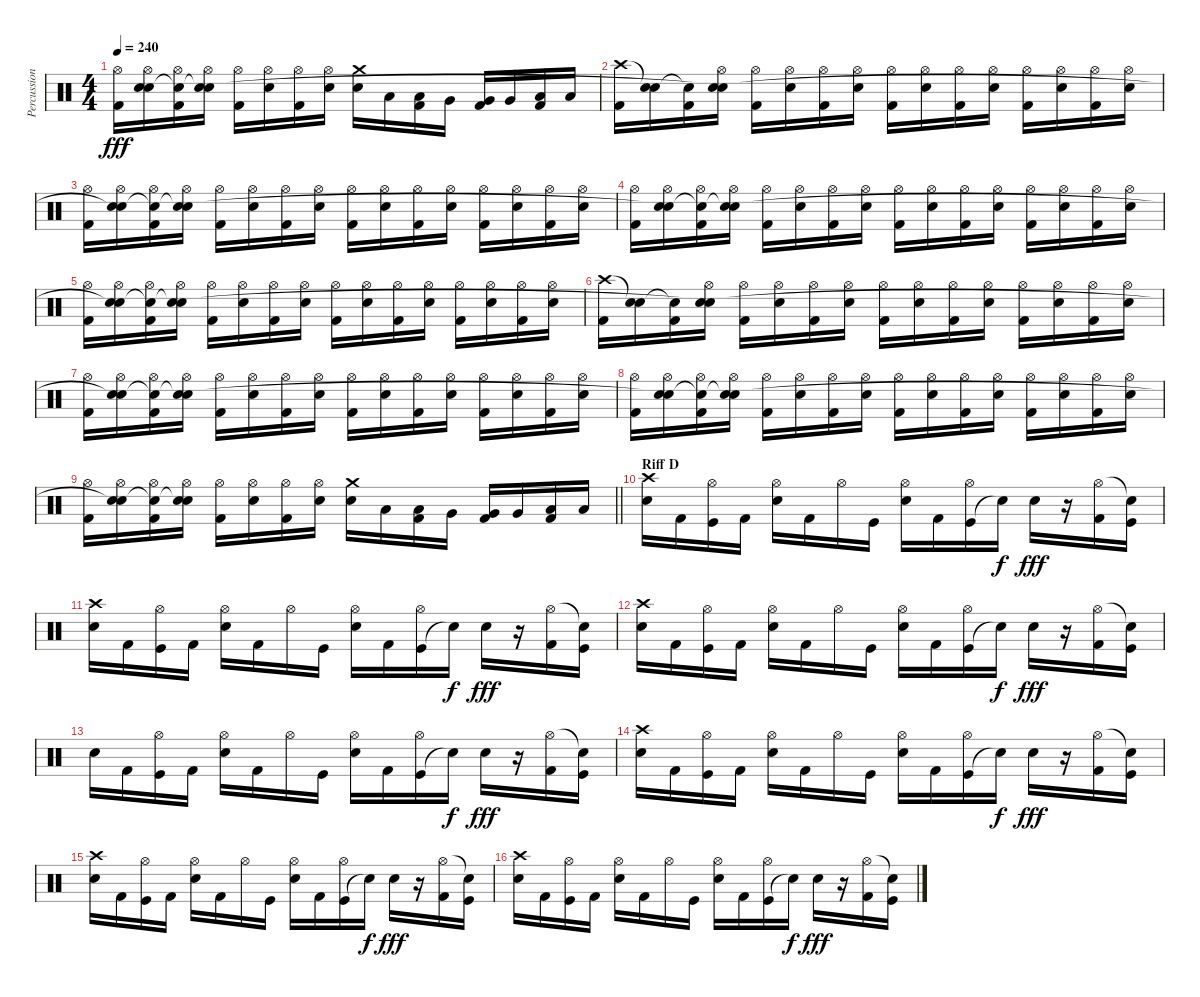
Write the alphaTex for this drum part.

\track ("Percussion" "Percussion") {instrument percussion}
\staff {score}
\articulation defaults
\ts (4 4)
\tempo 240
\clef neutral
\ks c
("Kick (hit) 2" "Hi-Hat (open)").16{dy fff} ("Snare (hit) 2" "Hi-Hat (open)" "Snare (hit)"{t}).16 ("Kick (hit) 2" "Hi-Hat (open)" "Snare (hit)"{t}).16 ("Snare (hit) 2" "Hi-Hat (open)" "Snare (hit)"{t}).16 ("Kick (hit) 2" "Hi-Hat (open)").16 ("Snare (hit) 2" "Hi-Hat (open)").16 ("Kick (hit) 2" "Hi-Hat (open)").16 ("Snare (hit) 2" "Hi-Hat (open)").16 ("Snare (hit) 2" "Crash medium (hit)").16 "Low Tom (hit)".16 ("Kick (hit) 2" "Low Tom (hit)").16 "Very Low Tom (hit)".16 ("Kick (hit) 2" "Very Low Tom (hit)").16 "Very Low Tom (hit)".16 ("Kick (hit) 2" "Low Floor Tom (hit)").16 "Low Floor Tom (hit)".16 |
("Kick (hit) 2" "Crash high (hit)").16 ("Snare (hit) 2" "Snare (hit)"{t}).16 ("Kick (hit) 2" "Snare (hit)"{t}).16 ("Snare (hit) 2" "Hi-Hat (open)" "Snare (hit)"{t}).16 ("Kick (hit) 2" "Hi-Hat (open)").16 ("Snare (hit) 2" "Hi-Hat (open)").16 ("Kick (hit) 2" "Hi-Hat (open)").16 ("Snare (hit) 2" "Hi-Hat (open)").16 ("Kick (hit) 2" "Hi-Hat (open)").16 ("Snare (hit) 2" "Hi-Hat (open)").16 ("Kick (hit) 2" "Hi-Hat (open)").16 ("Snare (hit) 2" "Hi-Hat (open)").16 ("Kick (hit) 2" "Hi-Hat (open)").16 ("Snare (hit) 2" "Hi-Hat (open)").16 ("Kick (hit) 2" "Hi-Hat (open)").16 ("Snare (hit) 2" "Hi-Hat (open)").16 |
("Kick (hit) 2" "Hi-Hat (open)").16 ("Snare (hit) 2" "Hi-Hat (open)" "Snare (hit)"{t}).16 ("Kick (hit) 2" "Hi-Hat (open)" "Snare (hit)"{t}).16 ("Snare (hit) 2" "Hi-Hat (open)" "Snare (hit)"{t}).16 ("Kick (hit) 2" "Hi-Hat (open)").16 ("Snare (hit) 2" "Hi-Hat (open)").16 ("Kick (hit) 2" "Hi-Hat (open)").16 ("Snare (hit) 2" "Hi-Hat (open)").16 ("Kick (hit) 2" "Hi-Hat (open)").16 ("Snare (hit) 2" "Hi-Hat (open)").16 ("Kick (hit) 2" "Hi-Hat (open)").16 ("Snare (hit) 2" "Hi-Hat (open)").16 ("Kick (hit) 2" "Hi-Hat (open)").16 ("Snare (hit) 2" "Hi-Hat (open)").16 ("Kick (hit) 2" "Hi-Hat (open)").16 ("Snare (hit) 2" "Hi-Hat (open)").16 |
("Kick (hit) 2" "Hi-Hat (open)").16 ("Snare (hit) 2" "Hi-Hat (open)" "Snare (hit)"{t}).16 ("Kick (hit) 2" "Hi-Hat (open)" "Snare (hit)"{t}).16 ("Snare (hit) 2" "Hi-Hat (open)" "Snare (hit)"{t}).16 ("Kick (hit) 2" "Hi-Hat (open)").16 ("Snare (hit) 2" "Hi-Hat (open)").16 ("Kick (hit) 2" "Hi-Hat (open)").16 ("Snare (hit) 2" "Hi-Hat (open)").16 ("Kick (hit) 2" "Hi-Hat (open)").16 ("Snare (hit) 2" "Hi-Hat (open)").16 ("Kick (hit) 2" "Hi-Hat (open)").16 ("Snare (hit) 2" "Hi-Hat (open)").16 ("Kick (hit) 2" "Hi-Hat (open)").16 ("Snare (hit) 2" "Hi-Hat (open)").16 ("Kick (hit) 2" "Hi-Hat (open)").16 ("Snare (hit) 2" "Hi-Hat (open)").16 |
("Kick (hit) 2" "Hi-Hat (open)").16 ("Snare (hit) 2" "Hi-Hat (open)" "Snare (hit)"{t}).16 ("Kick (hit) 2" "Hi-Hat (open)" "Snare (hit)"{t}).16 ("Snare (hit) 2" "Hi-Hat (open)" "Snare (hit)"{t}).16 ("Kick (hit) 2" "Hi-Hat (open)").16 ("Snare (hit) 2" "Hi-Hat (open)").16 ("Kick (hit) 2" "Hi-Hat (open)").16 ("Snare (hit) 2" "Hi-Hat (open)").16 ("Kick (hit) 2" "Hi-Hat (open)").16 ("Snare (hit) 2" "Hi-Hat (open)").16 ("Kick (hit) 2" "Hi-Hat (open)").16 ("Snare (hit) 2" "Hi-Hat (open)").16 ("Kick (hit) 2" "Hi-Hat (open)").16 ("Snare (hit) 2" "Hi-Hat (open)").16 ("Kick (hit) 2" "Hi-Hat (open)").16 ("Snare (hit) 2" "Hi-Hat (open)").16 |
("Kick (hit) 2" "Crash high (hit)").16 ("Snare (hit) 2" "Snare (hit)"{t}).16 ("Kick (hit) 2" "Snare (hit)"{t}).16 ("Snare (hit) 2" "Hi-Hat (open)" "Snare (hit)"{t}).16 ("Kick (hit) 2" "Hi-Hat (open)").16 ("Snare (hit) 2" "Hi-Hat (open)").16 ("Kick (hit) 2" "Hi-Hat (open)").16 ("Snare (hit) 2" "Hi-Hat (open)").16 ("Kick (hit) 2" "Hi-Hat (open)").16 ("Snare (hit) 2" "Hi-Hat (open)").16 ("Kick (hit) 2" "Hi-Hat (open)").16 ("Snare (hit) 2" "Hi-Hat (open)").16 ("Kick (hit) 2" "Hi-Hat (open)").16 ("Snare (hit) 2" "Hi-Hat (open)").16 ("Kick (hit) 2" "Hi-Hat (open)").16 ("Snare (hit) 2" "Hi-Hat (open)").16 |
("Kick (hit) 2" "Hi-Hat (open)").16 ("Snare (hit) 2" "Hi-Hat (open)" "Snare (hit)"{t}).16 ("Kick (hit) 2" "Hi-Hat (open)" "Snare (hit)"{t}).16 ("Snare (hit) 2" "Hi-Hat (open)" "Snare (hit)"{t}).16 ("Kick (hit) 2" "Hi-Hat (open)").16 ("Snare (hit) 2" "Hi-Hat (open)").16 ("Kick (hit) 2" "Hi-Hat (open)").16 ("Snare (hit) 2" "Hi-Hat (open)").16 ("Kick (hit) 2" "Hi-Hat (open)").16 ("Snare (hit) 2" "Hi-Hat (open)").16 ("Kick (hit) 2" "Hi-Hat (open)").16 ("Snare (hit) 2" "Hi-Hat (open)").16 ("Kick (hit) 2" "Hi-Hat (open)").16 ("Snare (hit) 2" "Hi-Hat (open)").16 ("Kick (hit) 2" "Hi-Hat (open)").16 ("Snare (hit) 2" "Hi-Hat (open)").16 |
("Kick (hit) 2" "Hi-Hat (open)").16 ("Snare (hit) 2" "Hi-Hat (open)" "Snare (hit)"{t}).16 ("Kick (hit) 2" "Hi-Hat (open)" "Snare (hit)"{t}).16 ("Snare (hit) 2" "Hi-Hat (open)" "Snare (hit)"{t}).16 ("Kick (hit) 2" "Hi-Hat (open)").16 ("Snare (hit) 2" "Hi-Hat (open)").16 ("Kick (hit) 2" "Hi-Hat (open)").16 ("Snare (hit) 2" "Hi-Hat (open)").16 ("Kick (hit) 2" "Hi-Hat (open)").16 ("Snare (hit) 2" "Hi-Hat (open)").16 ("Kick (hit) 2" "Hi-Hat (open)").16 ("Snare (hit) 2" "Hi-Hat (open)").16 ("Kick (hit) 2" "Hi-Hat (open)").16 ("Snare (hit) 2" "Hi-Hat (open)").16 ("Kick (hit) 2" "Hi-Hat (open)").16 ("Snare (hit) 2" "Hi-Hat (open)").16 |
\barLineRight lightlight
("Kick (hit) 2" "Hi-Hat (open)").16 ("Snare (hit) 2" "Hi-Hat (open)" "Snare (hit)"{t}).16 ("Kick (hit) 2" "Hi-Hat (open)" "Snare (hit)"{t}).16 ("Snare (hit) 2" "Hi-Hat (open)" "Snare (hit)"{t}).16 ("Kick (hit) 2" "Hi-Hat (open)").16 ("Snare (hit) 2" "Hi-Hat (open)").16 ("Kick (hit) 2" "Hi-Hat (open)").16 ("Snare (hit) 2" "Hi-Hat (open)").16 ("Snare (hit) 2" "Crash medium (hit)").16 "Low Tom (hit)".16 ("Kick (hit) 2" "Low Tom (hit)").16 "Very Low Tom (hit)".16 ("Kick (hit) 2" "Very Low Tom (hit)").16 "Very Low Tom (hit)".16 ("Kick (hit) 2" "Low Floor Tom (hit)").16 "Low Floor Tom (hit)".16 |
\section ("" "Riff D")
("Snare (hit) 2" "Crash high (hit)").16 "Kick (hit) 2".16 ("Kick (hit)" "Hi-Hat (open)").16 "Kick (hit) 2".16 ("Snare (hit) 2" "Hi-Hat (open)").16 "Kick (hit) 2".16 "Hi-Hat (open)".16 "Kick (hit)".16 ("Snare (hit) 2" "Hi-Hat (open)").16 "Kick (hit) 2".16 ("Kick (hit)" "Hi-Hat (open)").16 "Snare (hit)"{t}.16{dy f} "Snare (hit) 2".16{dy fff} r.16 ("Kick (hit) 2" "Hi-Hat (open)").16 ("Kick (hit)" "Snare (hit)"{t}).16 |
("Snare (hit) 2" "Crash high (hit)").16 "Kick (hit) 2".16 ("Kick (hit)" "Hi-Hat (open)").16 "Kick (hit) 2".16 ("Snare (hit) 2" "Hi-Hat (open)").16 "Kick (hit) 2".16 "Hi-Hat (open)".16 "Kick (hit)".16 ("Snare (hit) 2" "Hi-Hat (open)").16 "Kick (hit) 2".16 ("Kick (hit)" "Hi-Hat (open)").16 "Snare (hit)"{t}.16{dy f} "Snare (hit) 2".16{dy fff} r.16 ("Kick (hit) 2" "Hi-Hat (open)").16 ("Kick (hit)" "Snare (hit)"{t}).16 |
("Snare (hit) 2" "Crash high (hit)").16 "Kick (hit) 2".16 ("Kick (hit)" "Hi-Hat (open)").16 "Kick (hit) 2".16 ("Snare (hit) 2" "Hi-Hat (open)").16 "Kick (hit) 2".16 "Hi-Hat (open)".16 "Kick (hit)".16 ("Snare (hit) 2" "Hi-Hat (open)").16 "Kick (hit) 2".16 ("Kick (hit)" "Hi-Hat (open)").16 "Snare (hit)"{t}.16{dy f} "Snare (hit) 2".16{dy fff} r.16 ("Kick (hit) 2" "Hi-Hat (open)").16 ("Kick (hit)" "Snare (hit)"{t}).16 |
"Snare (hit) 2".16 "Kick (hit) 2".16 ("Kick (hit)" "Hi-Hat (open)").16 "Kick (hit) 2".16 ("Snare (hit) 2" "Hi-Hat (open)").16 "Kick (hit) 2".16 "Hi-Hat (open)".16 "Kick (hit)".16 ("Snare (hit) 2" "Hi-Hat (open)").16 "Kick (hit) 2".16 ("Kick (hit)" "Hi-Hat (open)").16 "Snare (hit)"{t}.16{dy f} "Snare (hit) 2".16{dy fff} r.16 ("Kick (hit) 2" "Hi-Hat (open)").16 ("Kick (hit)" "Snare (hit)"{t}).16 |
("Snare (hit) 2" "Crash high (hit)").16 "Kick (hit) 2".16 ("Kick (hit)" "Hi-Hat (open)").16 "Kick (hit) 2".16 ("Snare (hit) 2" "Hi-Hat (open)").16 "Kick (hit) 2".16 "Hi-Hat (open)".16 "Kick (hit)".16 ("Snare (hit) 2" "Hi-Hat (open)").16 "Kick (hit) 2".16 ("Kick (hit)" "Hi-Hat (open)").16 "Snare (hit)"{t}.16{dy f} "Snare (hit) 2".16{dy fff} r.16 ("Kick (hit) 2" "Hi-Hat (open)").16 ("Kick (hit)" "Snare (hit)"{t}).16 |
("Snare (hit) 2" "Crash high (hit)").16 "Kick (hit) 2".16 ("Kick (hit)" "Hi-Hat (open)").16 "Kick (hit) 2".16 ("Snare (hit) 2" "Hi-Hat (open)").16 "Kick (hit) 2".16 "Hi-Hat (open)".16 "Kick (hit)".16 ("Snare (hit) 2" "Hi-Hat (open)").16 "Kick (hit) 2".16 ("Kick (hit)" "Hi-Hat (open)").16 "Snare (hit)"{t}.16{dy f} "Snare (hit) 2".16{dy fff} r.16 ("Kick (hit) 2" "Hi-Hat (open)").16 ("Kick (hit)" "Snare (hit)"{t}).16 |
("Snare (hit) 2" "Crash high (hit)").16 "Kick (hit) 2".16 ("Kick (hit)" "Hi-Hat (open)").16 "Kick (hit) 2".16 ("Snare (hit) 2" "Hi-Hat (open)").16 "Kick (hit) 2".16 "Hi-Hat (open)".16 "Kick (hit)".16 ("Snare (hit) 2" "Hi-Hat (open)").16 "Kick (hit) 2".16 ("Kick (hit)" "Hi-Hat (open)").16 "Snare (hit)"{t}.16{dy f} "Snare (hit) 2".16{dy fff} r.16 ("Kick (hit) 2" "Hi-Hat (open)").16 ("Kick (hit)" "Snare (hit)"{t}).16
